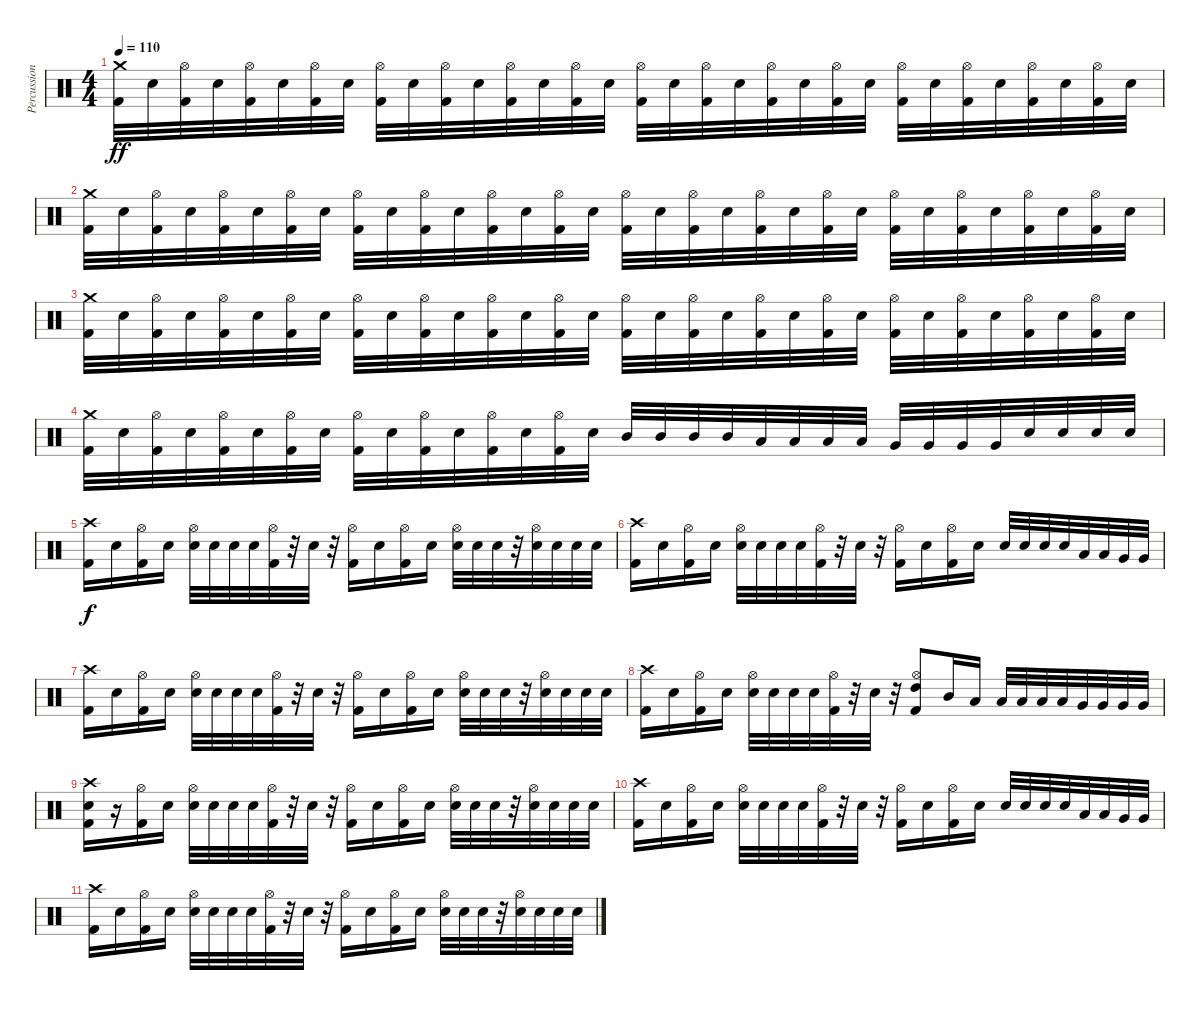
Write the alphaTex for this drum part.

\track ("Percussion" "Percussion") {instrument percussion}
\staff {score}
\articulation defaults
\ts (4 4)
\tempo 110
\clef neutral
\ks c
("Crash medium (hit)" "Kick (hit) 2").32{dy ff} "Electric Snare (hit)".32 ("Hi-Hat (open)" "Kick (hit) 2").32 "Electric Snare (hit)".32 ("Hi-Hat (open)" "Kick (hit) 2").32 "Electric Snare (hit)".32 ("Hi-Hat (open)" "Kick (hit) 2").32 "Electric Snare (hit)".32 ("Hi-Hat (open)" "Kick (hit) 2").32 "Electric Snare (hit)".32 ("Hi-Hat (open)" "Kick (hit) 2").32 "Electric Snare (hit)".32 ("Hi-Hat (open)" "Kick (hit) 2").32 "Electric Snare (hit)".32 ("Hi-Hat (open)" "Kick (hit) 2").32 "Electric Snare (hit)".32 ("Hi-Hat (open)" "Kick (hit) 2").32 "Electric Snare (hit)".32 ("Hi-Hat (open)" "Kick (hit) 2").32 "Electric Snare (hit)".32 ("Hi-Hat (open)" "Kick (hit) 2").32 "Electric Snare (hit)".32 ("Hi-Hat (open)" "Kick (hit) 2").32 "Electric Snare (hit)".32 ("Hi-Hat (open)" "Kick (hit) 2").32 "Electric Snare (hit)".32 ("Hi-Hat (open)" "Kick (hit) 2").32 "Electric Snare (hit)".32 ("Hi-Hat (open)" "Kick (hit) 2").32 "Electric Snare (hit)".32 ("Hi-Hat (open)" "Kick (hit) 2").32 "Electric Snare (hit)".32 |
("Crash medium (hit)" "Kick (hit) 2").32 "Electric Snare (hit)".32 ("Hi-Hat (open)" "Kick (hit) 2").32 "Electric Snare (hit)".32 ("Hi-Hat (open)" "Kick (hit) 2").32 "Electric Snare (hit)".32 ("Hi-Hat (open)" "Kick (hit) 2").32 "Electric Snare (hit)".32 ("Hi-Hat (open)" "Kick (hit) 2").32 "Electric Snare (hit)".32 ("Hi-Hat (open)" "Kick (hit) 2").32 "Electric Snare (hit)".32 ("Hi-Hat (open)" "Kick (hit) 2").32 "Electric Snare (hit)".32 ("Hi-Hat (open)" "Kick (hit) 2").32 "Electric Snare (hit)".32 ("Hi-Hat (open)" "Kick (hit) 2").32 "Electric Snare (hit)".32 ("Hi-Hat (open)" "Kick (hit) 2").32 "Electric Snare (hit)".32 ("Hi-Hat (open)" "Kick (hit) 2").32 "Electric Snare (hit)".32 ("Hi-Hat (open)" "Kick (hit) 2").32 "Electric Snare (hit)".32 ("Hi-Hat (open)" "Kick (hit) 2").32 "Electric Snare (hit)".32 ("Hi-Hat (open)" "Kick (hit) 2").32 "Electric Snare (hit)".32 ("Hi-Hat (open)" "Kick (hit) 2").32 "Electric Snare (hit)".32 ("Hi-Hat (open)" "Kick (hit) 2").32 "Electric Snare (hit)".32 |
("Crash medium (hit)" "Kick (hit) 2").32 "Electric Snare (hit)".32 ("Hi-Hat (open)" "Kick (hit) 2").32 "Electric Snare (hit)".32 ("Hi-Hat (open)" "Kick (hit) 2").32 "Electric Snare (hit)".32 ("Hi-Hat (open)" "Kick (hit) 2").32 "Electric Snare (hit)".32 ("Hi-Hat (open)" "Kick (hit) 2").32 "Electric Snare (hit)".32 ("Hi-Hat (open)" "Kick (hit) 2").32 "Electric Snare (hit)".32 ("Hi-Hat (open)" "Kick (hit) 2").32 "Electric Snare (hit)".32 ("Hi-Hat (open)" "Kick (hit) 2").32 "Electric Snare (hit)".32 ("Hi-Hat (open)" "Kick (hit) 2").32 "Electric Snare (hit)".32 ("Hi-Hat (open)" "Kick (hit) 2").32 "Electric Snare (hit)".32 ("Hi-Hat (open)" "Kick (hit) 2").32 "Electric Snare (hit)".32 ("Hi-Hat (open)" "Kick (hit) 2").32 "Electric Snare (hit)".32 ("Hi-Hat (open)" "Kick (hit) 2").32 "Electric Snare (hit)".32 ("Hi-Hat (open)" "Kick (hit) 2").32 "Electric Snare (hit)".32 ("Hi-Hat (open)" "Kick (hit) 2").32 "Electric Snare (hit)".32 ("Hi-Hat (open)" "Kick (hit) 2").32 "Electric Snare (hit)".32 |
("Crash medium (hit)" "Kick (hit) 2").32 "Electric Snare (hit)".32 ("Hi-Hat (open)" "Kick (hit) 2").32 "Electric Snare (hit)".32 ("Hi-Hat (open)" "Kick (hit) 2").32 "Electric Snare (hit)".32 ("Hi-Hat (open)" "Kick (hit) 2").32 "Electric Snare (hit)".32 ("Hi-Hat (open)" "Kick (hit) 2").32 "Electric Snare (hit)".32 ("Hi-Hat (open)" "Kick (hit) 2").32 "Electric Snare (hit)".32 ("Hi-Hat (open)" "Kick (hit) 2").32 "Electric Snare (hit)".32 ("Hi-Hat (open)" "Kick (hit) 2").32 "Electric Snare (hit)".32 "Mid Tom (hit)".32 "Mid Tom (hit)".32 "Mid Tom (hit)".32 "Mid Tom (hit)".32 "Low Tom (hit)".32 "Low Tom (hit)".32 "Low Tom (hit)".32 "Low Tom (hit)".32 "Very Low Tom (hit)".32 "Very Low Tom (hit)".32 "Very Low Tom (hit)".32 "Very Low Tom (hit)".32 "Electric Snare (hit)".32 "Electric Snare (hit)".32 "Electric Snare (hit)".32 "Electric Snare (hit)".32 |
("Crash high (hit)" "Kick (hit) 2").16{dy f} "Electric Snare (hit)".16 ("Hi-Hat (open)" "Kick (hit) 2").16 "Electric Snare (hit)".16 ("Hi-Hat (open)" "Electric Snare (hit)").32 "Electric Snare (hit)".32 "Electric Snare (hit)".32 "Electric Snare (hit)".32 ("Hi-Hat (open)" "Kick (hit) 2").32 r.32 "Electric Snare (hit)".32 r.32 ("Hi-Hat (open)" "Kick (hit) 2").16 "Electric Snare (hit)".16 ("Hi-Hat (open)" "Kick (hit) 2").16 "Electric Snare (hit)".16 ("Hi-Hat (open)" "Electric Snare (hit)").32 "Electric Snare (hit)".32 "Electric Snare (hit)".32 r.32 ("Hi-Hat (open)" "Electric Snare (hit)").32 "Electric Snare (hit)".32 "Electric Snare (hit)".32 "Electric Snare (hit)".32 |
("Crash high (hit)" "Kick (hit) 2").16 "Electric Snare (hit)".16 ("Hi-Hat (open)" "Kick (hit) 2").16 "Electric Snare (hit)".16 ("Hi-Hat (open)" "Electric Snare (hit)").32 "Electric Snare (hit)".32 "Electric Snare (hit)".32 "Electric Snare (hit)".32 ("Hi-Hat (open)" "Kick (hit) 2").32 r.32 "Electric Snare (hit)".32 r.32 ("Hi-Hat (open)" "Kick (hit) 2").16 "Electric Snare (hit)".16 ("Hi-Hat (open)" "Kick (hit) 2").16 "Electric Snare (hit)".16 "Electric Snare (hit)".32 "Electric Snare (hit)".32 "Electric Snare (hit)".32 "Electric Snare (hit)".32 "Low Tom (hit)".32 "Low Tom (hit)".32 "Very Low Tom (hit)".32 "Very Low Tom (hit)".32 |
("Crash high (hit)" "Kick (hit) 2").16 "Electric Snare (hit)".16 ("Hi-Hat (open)" "Kick (hit) 2").16 "Electric Snare (hit)".16 ("Hi-Hat (open)" "Electric Snare (hit)").32 "Electric Snare (hit)".32 "Electric Snare (hit)".32 "Electric Snare (hit)".32 ("Hi-Hat (open)" "Kick (hit) 2").32 r.32 "Electric Snare (hit)".32 r.32 ("Hi-Hat (open)" "Kick (hit) 2").16 "Electric Snare (hit)".16 ("Hi-Hat (open)" "Kick (hit) 2").16 "Electric Snare (hit)".16 ("Hi-Hat (open)" "Electric Snare (hit)").32 "Electric Snare (hit)".32 "Electric Snare (hit)".32 r.32 ("Hi-Hat (open)" "Electric Snare (hit)").32 "Electric Snare (hit)".32 "Electric Snare (hit)".32 "Electric Snare (hit)".32 |
("Crash high (hit)" "Kick (hit) 2").16 "Electric Snare (hit)".16 ("Hi-Hat (open)" "Kick (hit) 2").16 "Electric Snare (hit)".16 ("Hi-Hat (open)" "Electric Snare (hit)").32 "Electric Snare (hit)".32 "Electric Snare (hit)".32 "Electric Snare (hit)".32 ("Hi-Hat (open)" "Kick (hit) 2").32 r.32 "Electric Snare (hit)".32 r.32 ("Hi-Hat (open)" "High Tom (hit)" "Kick (hit) 2").8 "Mid Tom (hit)".16 "Low Tom (hit)".16 "Low Tom (hit)".32 "Low Tom (hit)".32 "Low Tom (hit)".32 "Low Tom (hit)".32 "Very Low Tom (hit)".32 "Very Low Tom (hit)".32 "Very Low Tom (hit)".32 "Very Low Tom (hit)".32 |
("Crash high (hit)" "Electric Snare (hit)" "Kick (hit) 2").16 r.16 ("Hi-Hat (open)" "Kick (hit) 2").16 "Electric Snare (hit)".16 ("Hi-Hat (open)" "Electric Snare (hit)").32 "Electric Snare (hit)".32 "Electric Snare (hit)".32 "Electric Snare (hit)".32 ("Hi-Hat (open)" "Kick (hit) 2").32 r.32 "Electric Snare (hit)".32 r.32 ("Hi-Hat (open)" "Kick (hit) 2").16 "Electric Snare (hit)".16 ("Hi-Hat (open)" "Kick (hit) 2").16 "Electric Snare (hit)".16 ("Hi-Hat (open)" "Electric Snare (hit)").32 "Electric Snare (hit)".32 "Electric Snare (hit)".32 r.32 ("Hi-Hat (open)" "Electric Snare (hit)").32 "Electric Snare (hit)".32 "Electric Snare (hit)".32 "Electric Snare (hit)".32 |
("Crash high (hit)" "Kick (hit) 2").16 "Electric Snare (hit)".16 ("Hi-Hat (open)" "Kick (hit) 2").16 "Electric Snare (hit)".16 ("Hi-Hat (open)" "Electric Snare (hit)").32 "Electric Snare (hit)".32 "Electric Snare (hit)".32 "Electric Snare (hit)".32 ("Hi-Hat (open)" "Kick (hit) 2").32 r.32 "Electric Snare (hit)".32 r.32 ("Hi-Hat (open)" "Kick (hit) 2").16 "Electric Snare (hit)".16 ("Hi-Hat (open)" "Kick (hit) 2").16 "Electric Snare (hit)".16 "Electric Snare (hit)".32 "Electric Snare (hit)".32 "Electric Snare (hit)".32 "Electric Snare (hit)".32 "Low Tom (hit)".32 "Low Tom (hit)".32 "Very Low Tom (hit)".32 "Very Low Tom (hit)".32 |
("Crash high (hit)" "Kick (hit) 2").16 "Electric Snare (hit)".16 ("Hi-Hat (open)" "Kick (hit) 2").16 "Electric Snare (hit)".16 ("Hi-Hat (open)" "Electric Snare (hit)").32 "Electric Snare (hit)".32 "Electric Snare (hit)".32 "Electric Snare (hit)".32 ("Hi-Hat (open)" "Kick (hit) 2").32 r.32 "Electric Snare (hit)".32 r.32 ("Hi-Hat (open)" "Kick (hit) 2").16 "Electric Snare (hit)".16 ("Hi-Hat (open)" "Kick (hit) 2").16 "Electric Snare (hit)".16 ("Hi-Hat (open)" "Electric Snare (hit)").32 "Electric Snare (hit)".32 "Electric Snare (hit)".32 r.32 ("Hi-Hat (open)" "Electric Snare (hit)").32 "Electric Snare (hit)".32 "Electric Snare (hit)".32 "Electric Snare (hit)".32
